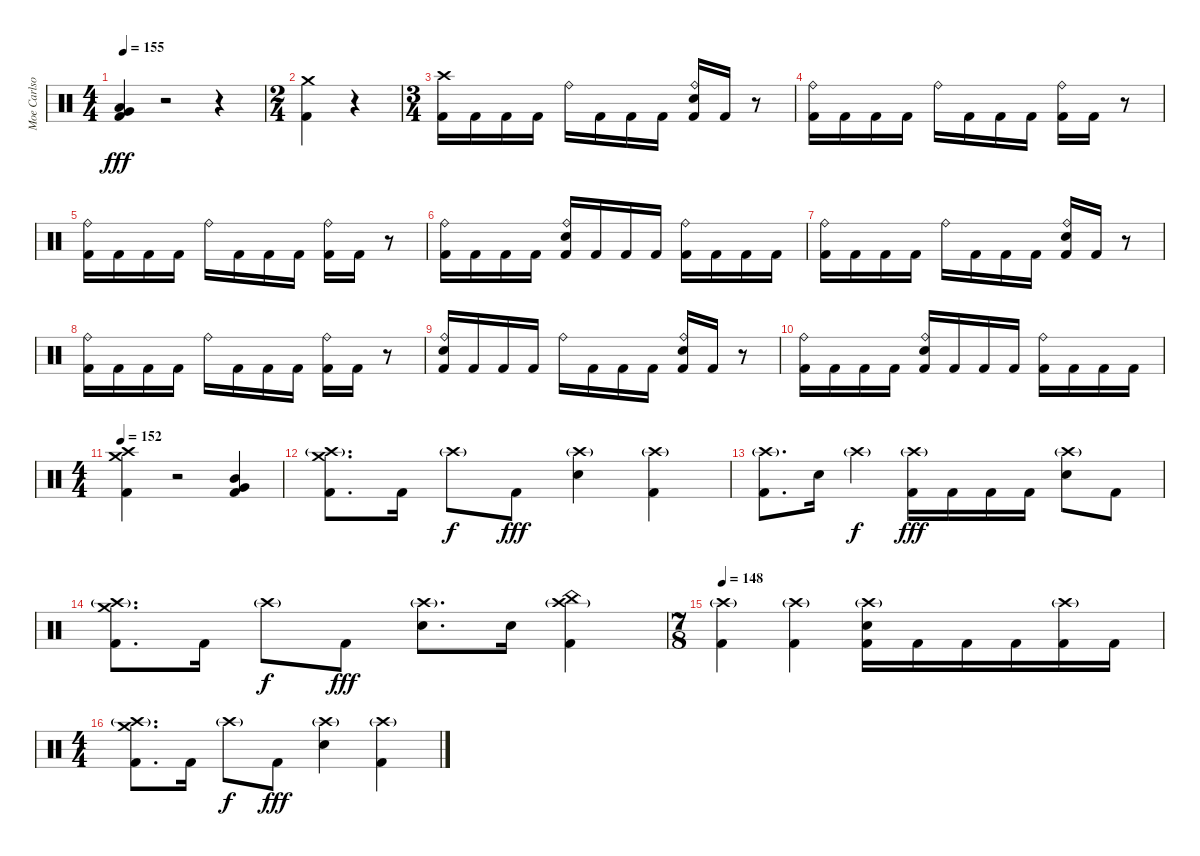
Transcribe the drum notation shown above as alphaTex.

\track ("Moe Carlson - Percussion" "Moe Carlso") {instrument percussion}
\staff {score}
\articulation defaults
\ts (4 4)
\tempo 155
\clef neutral
\ks c
("Very Low Tom (hit)" "Low Floor Tom (hit)" "Kick (hit) 2").4{dy fff} r.2 r.4 |
\ts (2 4)
("Crash medium (hit)" "Kick (hit) 2").4 r.4 |
\ts (3 4)
("Crash high (hit)" "Kick (hit) 2").16 "Kick (hit) 2".16 "Kick (hit) 2".16 "Kick (hit) 2".16 "Ride (bell)".16 "Kick (hit) 2".16 "Kick (hit) 2".16 "Kick (hit) 2".16 ("Ride (bell)" "Electric Snare (hit)" "Kick (hit) 2").16 "Kick (hit) 2".16 r.8 |
("Ride (bell)" "Kick (hit) 2").16 "Kick (hit) 2".16 "Kick (hit) 2".16 "Kick (hit) 2".16 "Ride (bell)".16 "Kick (hit) 2".16 "Kick (hit) 2".16 "Kick (hit) 2".16 ("Ride (bell)" "Kick (hit) 2").16 "Kick (hit) 2".16 r.8 |
("Ride (bell)" "Kick (hit) 2").16 "Kick (hit) 2".16 "Kick (hit) 2".16 "Kick (hit) 2".16 "Ride (bell)".16 "Kick (hit) 2".16 "Kick (hit) 2".16 "Kick (hit) 2".16 ("Ride (bell)" "Kick (hit) 2").16 "Kick (hit) 2".16 r.8 |
("Ride (bell)" "Kick (hit) 2").16 "Kick (hit) 2".16 "Kick (hit) 2".16 "Kick (hit) 2".16 ("Ride (bell)" "Electric Snare (hit)" "Kick (hit) 2").16 "Kick (hit) 2".16 "Kick (hit) 2".16 "Kick (hit) 2".16 ("Ride (bell)" "Kick (hit) 2").16 "Kick (hit) 2".16 "Kick (hit) 2".16 "Kick (hit) 2".16 |
("Ride (bell)" "Kick (hit) 2").16 "Kick (hit) 2".16 "Kick (hit) 2".16 "Kick (hit) 2".16 "Ride (bell)".16 "Kick (hit) 2".16 "Kick (hit) 2".16 "Kick (hit) 2".16 ("Ride (bell)" "Electric Snare (hit)" "Kick (hit) 2").16 "Kick (hit) 2".16 r.8 |
("Ride (bell)" "Kick (hit) 2").16 "Kick (hit) 2".16 "Kick (hit) 2".16 "Kick (hit) 2".16 "Ride (bell)".16 "Kick (hit) 2".16 "Kick (hit) 2".16 "Kick (hit) 2".16 ("Ride (bell)" "Kick (hit) 2").16 "Kick (hit) 2".16 r.8 |
("Ride (bell)" "Electric Snare (hit)" "Kick (hit) 2").16 "Kick (hit) 2".16 "Kick (hit) 2".16 "Kick (hit) 2".16 "Ride (bell)".16 "Kick (hit) 2".16 "Kick (hit) 2".16 "Kick (hit) 2".16 ("Ride (bell)" "Electric Snare (hit)" "Kick (hit) 2").16 "Kick (hit) 2".16 r.8 |
("Ride (bell)" "Kick (hit) 2").16 "Kick (hit) 2".16 "Kick (hit) 2".16 "Kick (hit) 2".16 ("Ride (bell)" "Electric Snare (hit)" "Kick (hit) 2").16 "Kick (hit) 2".16 "Kick (hit) 2".16 "Kick (hit) 2".16 ("Ride (bell)" "Kick (hit) 2").16 "Kick (hit) 2".16 "Kick (hit) 2".16 "Kick (hit) 2".16 |
\ts (4 4)
\tempo 152
("Crash high (hit)" "Crash medium (hit)" "Kick (hit) 2").4 r.2 ("Mid Tom (hit)" "Very Low Tom (hit)" "Kick (hit) 2").4 |
("Crash high (hit)"{g} "Crash medium (hit)" "Kick (hit) 2").8{d} "Kick (hit) 2".16 "Crash high (hit)"{g}.8{dy f} "Kick (hit) 2".8{dy fff} ("Crash high (hit)"{g} "Electric Snare (hit)").4 ("Crash high (hit)"{g} "Kick (hit) 2").4 |
("Crash high (hit)"{g} "Kick (hit) 2").8{d} "Electric Snare (hit)".16 "Crash high (hit)"{g}.4{dy f} ("Crash high (hit)"{g} "Kick (hit) 2").16{dy fff} "Kick (hit) 2".16 "Kick (hit) 2".16 "Kick (hit) 2".16 ("Crash high (hit)"{g} "Electric Snare (hit)").8 "Kick (hit) 2".8 |
("Crash high (hit)"{g} "Crash medium (hit)" "Kick (hit) 2").8{d} "Kick (hit) 2".16 "Crash high (hit)"{g}.8{dy f} "Kick (hit) 2".8{dy fff} ("Crash high (hit)"{g} "Electric Snare (hit)").8{d} "Electric Snare (hit)".16 ("Crash high (hit)"{g} "China (hit)" "Kick (hit) 2").4 |
\ts (7 8)
\tempo 148
("Crash high (hit)"{g} "Kick (hit) 2").4 ("Crash high (hit)"{g} "Kick (hit) 2").4 ("Crash high (hit)"{g} "Electric Snare (hit)" "Kick (hit) 2").16 "Kick (hit) 2".16 "Kick (hit) 2".16 "Kick (hit) 2".16 ("Crash high (hit)"{g} "Kick (hit) 2").16 "Kick (hit) 2".16 |
\ts (4 4)
("Crash high (hit)"{g} "Crash medium (hit)" "Kick (hit) 2").8{d} "Kick (hit) 2".16 "Crash high (hit)"{g}.8{dy f} "Kick (hit) 2".8{dy fff} ("Crash high (hit)"{g} "Electric Snare (hit)").4 ("Crash high (hit)"{g} "Kick (hit) 2").4
